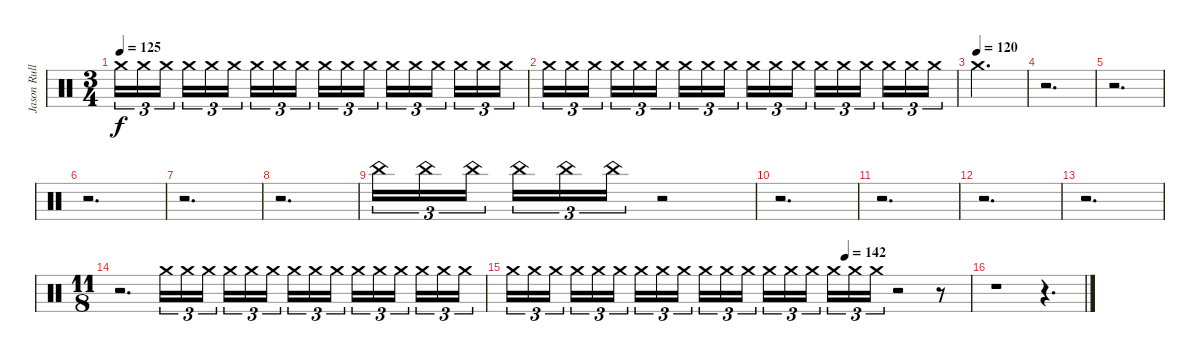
\track ("Jason Rullo" "Jason Rull") {instrument percussion}
\staff {score}
\articulation defaults
\ts (3 4)
\tempo 125
\clef neutral
\ks c "Crash medium (hit)".16{tu (3 2) dy f volume 4} "Crash medium (hit)".16{tu (3 2) volume 16} "Crash medium (hit)".16{tu (3 2)} "Crash medium (hit)".16{tu (3 2)} "Crash medium (hit)".16{tu (3 2)} "Crash medium (hit)".16{tu (3 2)} "Crash medium (hit)".16{tu (3 2)} "Crash medium (hit)".16{tu (3 2)} "Crash medium (hit)".16{tu (3 2)} "Crash medium (hit)".16{tu (3 2)} "Crash medium (hit)".16{tu (3 2)} "Crash medium (hit)".16{tu (3 2)} "Crash medium (hit)".16{tu (3 2)} "Crash medium (hit)".16{tu (3 2)} "Crash medium (hit)".16{tu (3 2)} "Crash medium (hit)".16{tu (3 2)} "Crash medium (hit)".16{tu (3 2)} "Crash medium (hit)".16{tu (3 2)}
|
"Crash medium (hit)".16{tu (3 2)} "Crash medium (hit)".16{tu (3 2)} "Crash medium (hit)".16{tu (3 2)} "Crash medium (hit)".16{tu (3 2)} "Crash medium (hit)".16{tu (3 2)} "Crash medium (hit)".16{tu (3 2)} "Crash medium (hit)".16{tu (3 2)} "Crash medium (hit)".16{tu (3 2)} "Crash medium (hit)".16{tu (3 2)} "Crash medium (hit)".16{tu (3 2)} "Crash medium (hit)".16{tu (3 2)} "Crash medium (hit)".16{tu (3 2)} "Crash medium (hit)".16{tu (3 2)} "Crash medium (hit)".16{tu (3 2)} "Crash medium (hit)".16{tu (3 2)} "Crash medium (hit)".16{tu (3 2)} "Crash medium (hit)".16{tu (3 2)} "Crash medium (hit)".16{tu (3 2)} |
\tempo (120)
"Crash medium (hit)".2{d} |
r.2{d} |
r.2{d} |
r.2{d} |
r.2{d} |
r.2{d} |
"China (hit)".16{tu (3 2) volume 5} "China (hit)".16{tu (3 2) volume 16} "China (hit)".16{tu (3 2)} "China (hit)".16{tu (3 2)} "China (hit)".16{tu (3 2)} "China (hit)".16{tu (3 2)} r.2 |
r.2{d} |
r.2{d} |
r.2{d} |
r.2{d} |
\ts (11 8)
r.2{d} "Crash medium (hit)".16{tu (3 2) volume 5} "Crash medium (hit)".16{tu (3 2) volume 16} "Crash medium (hit)".16{tu (3 2)} "Crash medium (hit)".16{tu (3 2)} "Crash medium (hit)".16{tu (3 2)} "Crash medium (hit)".16{tu (3 2)} "Crash medium (hit)".16{tu (3 2)} "Crash medium (hit)".16{tu (3 2)} "Crash medium (hit)".16{tu (3 2)} "Crash medium (hit)".16{tu (3 2)} "Crash medium (hit)".16{tu (3 2)} "Crash medium (hit)".16{tu (3 2)} "Crash medium (hit)".16{tu (3 2)} "Crash medium (hit)".16{tu (3 2)} "Crash medium (hit)".16{tu (3 2)} |
\tempo (142 0.7272727272727273)
"Crash medium (hit)".16{tu (3 2)} "Crash medium (hit)".16{tu (3 2)} "Crash medium (hit)".16{tu (3 2)} "Crash medium (hit)".16{tu (3 2)} "Crash medium (hit)".16{tu (3 2)} "Crash medium (hit)".16{tu (3 2)} "Crash medium (hit)".16{tu (3 2)} "Crash medium (hit)".16{tu (3 2)} "Crash medium (hit)".16{tu (3 2)} "Crash medium (hit)".16{tu (3 2)} "Crash medium (hit)".16{tu (3 2)} "Crash medium (hit)".16{tu (3 2)} "Crash medium (hit)".16{tu (3 2)} "Crash medium (hit)".16{tu (3 2)} "Crash medium (hit)".16{tu (3 2)} "Crash medium (hit)".16{tu (3 2)} "Crash medium (hit)".16{tu (3 2)} "Crash medium (hit)".16{tu (3 2)} r.2 r.8 |
r.1 r.4{d}
